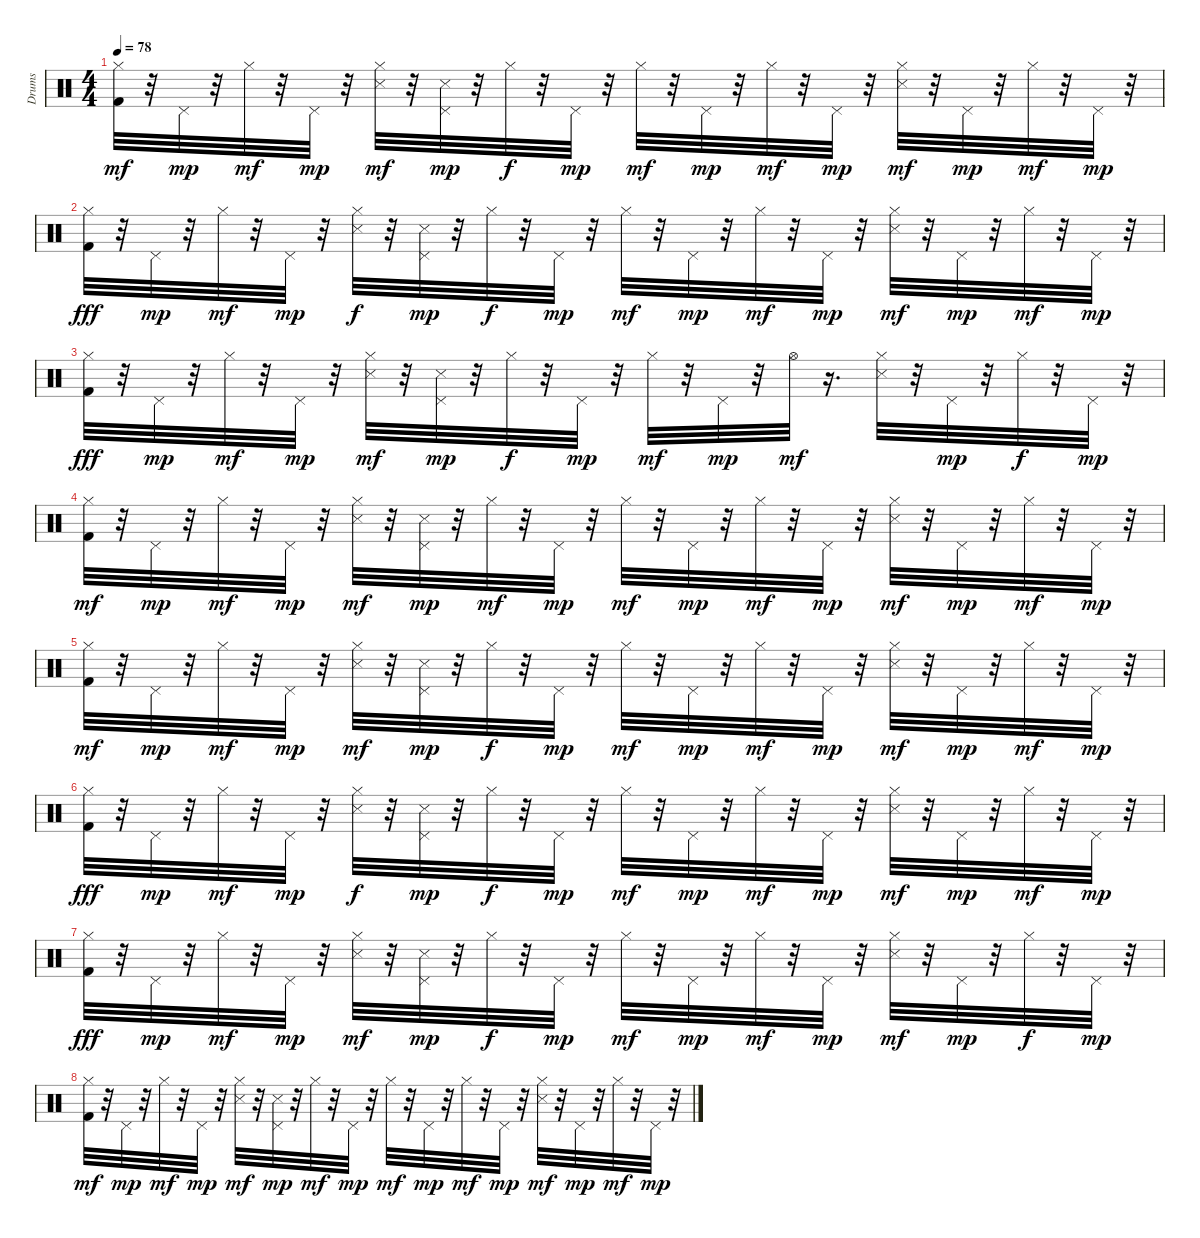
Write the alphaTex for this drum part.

\track ("Drums   " "Drums   ") {instrument percussion}
\staff {score}
\articulation defaults
\ts (4 4)
\tempo 78
\clef neutral
\ks c
("Kick (hit) 2" "Hi-Hat (closed)").32{dy mf} r.32 "Pedal Hi-Hat (hit)".32{dy mp} r.32 "Hi-Hat (closed)".32{dy mf} r.32 "Pedal Hi-Hat (hit)".32{dy mp} r.32 ("Hi-Hat (closed)" "Snare (side stick) 3").32{dy mf} r.32 ("Snare (side stick) 3" "Pedal Hi-Hat (hit)").32{dy mp} r.32 "Hi-Hat (closed)".32{dy f} r.32 "Pedal Hi-Hat (hit)".32{dy mp} r.32 "Hi-Hat (closed)".32{dy mf} r.32 "Pedal Hi-Hat (hit)".32{dy mp} r.32 "Hi-Hat (closed)".32{dy mf} r.32 "Pedal Hi-Hat (hit)".32{dy mp} r.32 ("Snare (side stick) 3" "Hi-Hat (closed)").32{dy mf} r.32 "Pedal Hi-Hat (hit)".32{dy mp} r.32 "Hi-Hat (closed)".32{dy mf} r.32 "Pedal Hi-Hat (hit)".32{dy mp} r.32 |
("Hi-Hat (closed)" "Kick (hit) 2").32{dy fff} r.32 "Pedal Hi-Hat (hit)".32{dy mp} r.32 "Hi-Hat (closed)".32{dy mf} r.32 "Pedal Hi-Hat (hit)".32{dy mp} r.32 ("Snare (side stick) 3" "Hi-Hat (closed)").32{dy f} r.32 ("Snare (side stick) 3" "Pedal Hi-Hat (hit)").32{dy mp} r.32 "Hi-Hat (closed)".32{dy f} r.32 "Pedal Hi-Hat (hit)".32{dy mp} r.32 "Hi-Hat (closed)".32{dy mf} r.32 "Pedal Hi-Hat (hit)".32{dy mp} r.32 "Hi-Hat (closed)".32{dy mf} r.32 "Pedal Hi-Hat (hit)".32{dy mp} r.32 ("Snare (side stick) 3" "Hi-Hat (closed)").32{dy mf} r.32 "Pedal Hi-Hat (hit)".32{dy mp} r.32 "Hi-Hat (closed)".32{dy mf} r.32 "Pedal Hi-Hat (hit)".32{dy mp} r.32 |
("Hi-Hat (closed)" "Kick (hit) 2").32{dy fff} r.32 "Pedal Hi-Hat (hit)".32{dy mp} r.32 "Hi-Hat (closed)".32{dy mf} r.32 "Pedal Hi-Hat (hit)".32{dy mp} r.32 ("Snare (side stick) 3" "Hi-Hat (closed)").32{dy mf} r.32 ("Snare (side stick) 3" "Pedal Hi-Hat (hit)").32{dy mp} r.32 "Hi-Hat (closed)".32{dy f} r.32 "Pedal Hi-Hat (hit)".32{dy mp} r.32 "Hi-Hat (closed)".32{dy mf} r.32 "Pedal Hi-Hat (hit)".32{dy mp} r.32 "Hi-Hat (open)".32{dy mf} r.16{d} ("Hi-Hat (closed)" "Snare (side stick) 3").32 r.32 "Pedal Hi-Hat (hit)".32{dy mp} r.32 "Hi-Hat (closed)".32{dy f} r.32 "Pedal Hi-Hat (hit)".32{dy mp} r.32 |
("Kick (hit) 2" "Hi-Hat (closed)").32{dy mf} r.32 "Pedal Hi-Hat (hit)".32{dy mp} r.32 "Hi-Hat (closed)".32{dy mf} r.32 "Pedal Hi-Hat (hit)".32{dy mp} r.32 ("Snare (side stick) 3" "Hi-Hat (closed)").32{dy mf} r.32 ("Snare (side stick) 3" "Pedal Hi-Hat (hit)").32{dy mp} r.32 "Hi-Hat (closed)".32{dy mf} r.32 "Pedal Hi-Hat (hit)".32{dy mp} r.32 "Hi-Hat (closed)".32{dy mf} r.32 "Pedal Hi-Hat (hit)".32{dy mp} r.32 "Hi-Hat (closed)".32{dy mf} r.32 "Pedal Hi-Hat (hit)".32{dy mp} r.32 ("Snare (side stick) 3" "Hi-Hat (closed)").32{dy mf} r.32 "Pedal Hi-Hat (hit)".32{dy mp} r.32 "Hi-Hat (closed)".32{dy mf} r.32 "Pedal Hi-Hat (hit)".32{dy mp} r.32 |
("Kick (hit) 2" "Hi-Hat (closed)").32{dy mf} r.32 "Pedal Hi-Hat (hit)".32{dy mp} r.32 "Hi-Hat (closed)".32{dy mf} r.32 "Pedal Hi-Hat (hit)".32{dy mp} r.32 ("Hi-Hat (closed)" "Snare (side stick) 3").32{dy mf} r.32 ("Snare (side stick) 3" "Pedal Hi-Hat (hit)").32{dy mp} r.32 "Hi-Hat (closed)".32{dy f} r.32 "Pedal Hi-Hat (hit)".32{dy mp} r.32 "Hi-Hat (closed)".32{dy mf} r.32 "Pedal Hi-Hat (hit)".32{dy mp} r.32 "Hi-Hat (closed)".32{dy mf} r.32 "Pedal Hi-Hat (hit)".32{dy mp} r.32 ("Snare (side stick) 3" "Hi-Hat (closed)").32{dy mf} r.32 "Pedal Hi-Hat (hit)".32{dy mp} r.32 "Hi-Hat (closed)".32{dy mf} r.32 "Pedal Hi-Hat (hit)".32{dy mp} r.32 |
("Hi-Hat (closed)" "Kick (hit) 2").32{dy fff} r.32 "Pedal Hi-Hat (hit)".32{dy mp} r.32 "Hi-Hat (closed)".32{dy mf} r.32 "Pedal Hi-Hat (hit)".32{dy mp} r.32 ("Snare (side stick) 3" "Hi-Hat (closed)").32{dy f} r.32 ("Snare (side stick) 3" "Pedal Hi-Hat (hit)").32{dy mp} r.32 "Hi-Hat (closed)".32{dy f} r.32 "Pedal Hi-Hat (hit)".32{dy mp} r.32 "Hi-Hat (closed)".32{dy mf} r.32 "Pedal Hi-Hat (hit)".32{dy mp} r.32 "Hi-Hat (closed)".32{dy mf} r.32 "Pedal Hi-Hat (hit)".32{dy mp} r.32 ("Snare (side stick) 3" "Hi-Hat (closed)").32{dy mf} r.32 "Pedal Hi-Hat (hit)".32{dy mp} r.32 "Hi-Hat (closed)".32{dy mf} r.32 "Pedal Hi-Hat (hit)".32{dy mp} r.32 |
("Hi-Hat (closed)" "Kick (hit) 2").32{dy fff} r.32 "Pedal Hi-Hat (hit)".32{dy mp} r.32 "Hi-Hat (closed)".32{dy mf} r.32 "Pedal Hi-Hat (hit)".32{dy mp} r.32 ("Snare (side stick) 3" "Hi-Hat (closed)").32{dy mf} r.32 ("Snare (side stick) 3" "Pedal Hi-Hat (hit)").32{dy mp} r.32 "Hi-Hat (closed)".32{dy f} r.32 "Pedal Hi-Hat (hit)".32{dy mp} r.32 "Hi-Hat (closed)".32{dy mf} r.32 "Pedal Hi-Hat (hit)".32{dy mp} r.32 "Hi-Hat (closed)".32{dy mf} r.32 "Pedal Hi-Hat (hit)".32{dy mp} r.32 ("Hi-Hat (closed)" "Snare (side stick) 3").32{dy mf} r.32 "Pedal Hi-Hat (hit)".32{dy mp} r.32 "Hi-Hat (closed)".32{dy f} r.32 "Pedal Hi-Hat (hit)".32{dy mp} r.32 |
("Kick (hit) 2" "Hi-Hat (closed)").32{dy mf} r.32 "Pedal Hi-Hat (hit)".32{dy mp} r.32 "Hi-Hat (closed)".32{dy mf} r.32 "Pedal Hi-Hat (hit)".32{dy mp} r.32 ("Snare (side stick) 3" "Hi-Hat (closed)").32{dy mf} r.32 ("Snare (side stick) 3" "Pedal Hi-Hat (hit)").32{dy mp} r.32 "Hi-Hat (closed)".32{dy mf} r.32 "Pedal Hi-Hat (hit)".32{dy mp} r.32 "Hi-Hat (closed)".32{dy mf} r.32 "Pedal Hi-Hat (hit)".32{dy mp} r.32 "Hi-Hat (closed)".32{dy mf} r.32 "Pedal Hi-Hat (hit)".32{dy mp} r.32 ("Snare (side stick) 3" "Hi-Hat (closed)").32{dy mf} r.32 "Pedal Hi-Hat (hit)".32{dy mp} r.32 "Hi-Hat (closed)".32{dy mf} r.32 "Pedal Hi-Hat (hit)".32{dy mp} r.32
